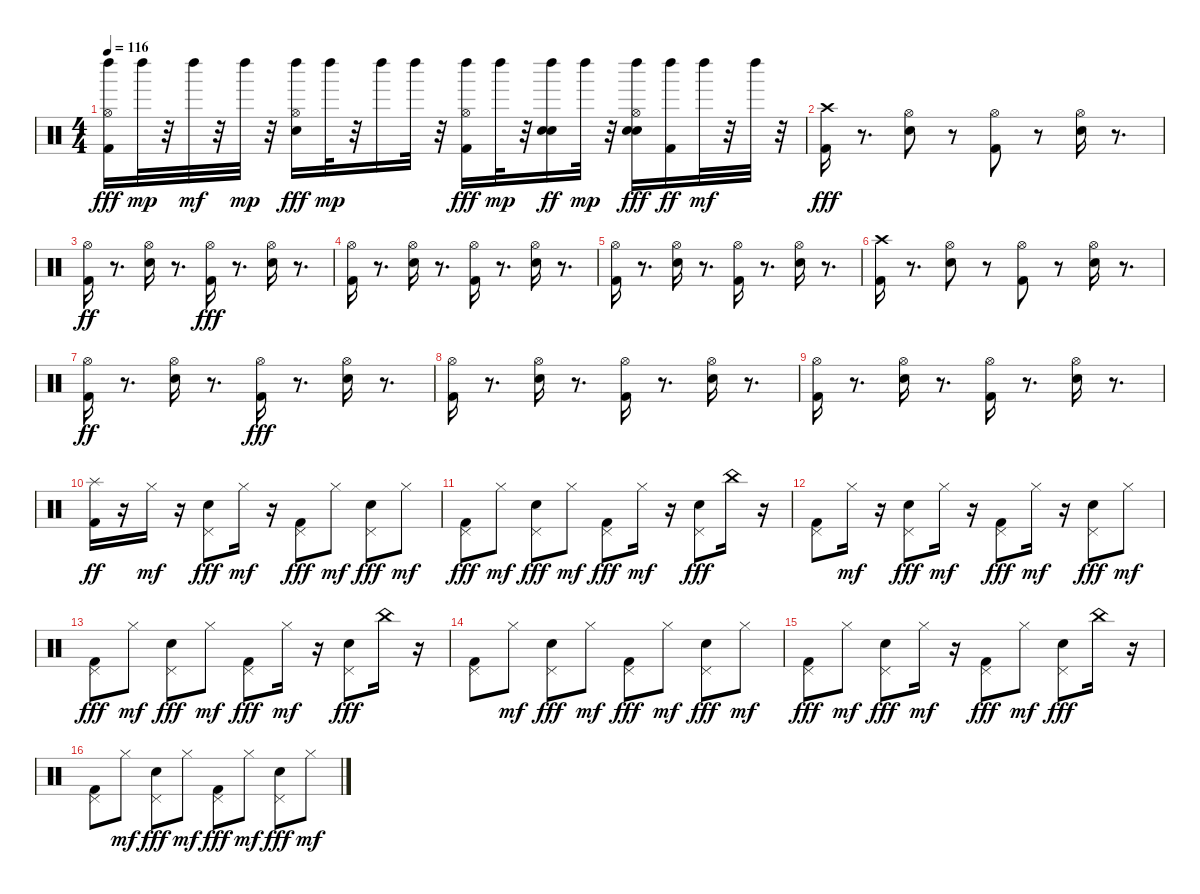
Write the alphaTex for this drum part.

\track "" {instrument percussion}
\staff {score}
\articulation defaults
\ts (4 4)
\tempo 116
\clef neutral
\ks c
("Left Maraca (hit)" "Kick (hit) 2" "Hi-Hat (open)").16{dy fff} "Left Maraca (hit)".32{dy mp} r.32 "Left Maraca (hit)".32{dy mf} r.32 "Left Maraca (hit)".32{dy mp} r.32 ("Left Maraca (hit)" "Snare (hit) 2" "Hi-Hat (open)").16{dy fff} "Left Maraca (hit)".32{dy mp} r.32 "Left Maraca (hit)".16 "Left Maraca (hit)".32 r.32 ("Left Maraca (hit)" "Kick (hit) 2" "Hi-Hat (open)").16{dy fff} "Left Maraca (hit)".32{dy mp} r.32 ("Snare (hit) 2" "Left Maraca (hit)" "Snare (hit) 2").16{dy ff} "Left Maraca (hit)".32{dy mp} r.32 ("Snare (hit) 2" "Left Maraca (hit)" "Snare (hit) 2" "Hi-Hat (open)").16{dy fff} ("Left Maraca (hit)" "Kick (hit) 2").16{dy ff} "Left Maraca (hit)".32{dy mf} r.32 "Left Maraca (hit)".32 r.32 |
("Kick (hit) 2" "Crash high (hit)").16{dy fff} r.8{d} ("Snare (hit) 2" "Hi-Hat (open)").8 r.8 ("Kick (hit) 2" "Hi-Hat (open)").8 r.8 ("Snare (hit) 2" "Hi-Hat (open)").16 r.8{d} |
("Kick (hit) 2" "Hi-Hat (open)").16{dy ff} r.8{d} ("Snare (hit) 2" "Hi-Hat (open)").16 r.8{d} ("Kick (hit) 2" "Hi-Hat (open)").16{dy fff} r.8{d} ("Snare (hit) 2" "Hi-Hat (open)").16 r.8{d} |
("Kick (hit) 2" "Hi-Hat (open)").16 r.8{d} ("Snare (hit) 2" "Hi-Hat (open)").16 r.8{d} ("Kick (hit) 2" "Hi-Hat (open)").16 r.8{d} ("Snare (hit) 2" "Hi-Hat (open)").16 r.8{d} |
("Kick (hit) 2" "Hi-Hat (open)").16 r.8{d} ("Snare (hit) 2" "Hi-Hat (open)").16 r.8{d} ("Kick (hit) 2" "Hi-Hat (open)").16 r.8{d} ("Snare (hit) 2" "Hi-Hat (open)").16 r.8{d} |
("Kick (hit) 2" "Crash high (hit)").16 r.8{d} ("Snare (hit) 2" "Hi-Hat (open)").8 r.8 ("Kick (hit) 2" "Hi-Hat (open)").8 r.8 ("Snare (hit) 2" "Hi-Hat (open)").16 r.8{d} |
("Kick (hit) 2" "Hi-Hat (open)").16{dy ff} r.8{d} ("Snare (hit) 2" "Hi-Hat (open)").16 r.8{d} ("Kick (hit) 2" "Hi-Hat (open)").16{dy fff} r.8{d} ("Snare (hit) 2" "Hi-Hat (open)").16 r.8{d} |
("Kick (hit) 2" "Hi-Hat (open)").16 r.8{d} ("Snare (hit) 2" "Hi-Hat (open)").16 r.8{d} ("Kick (hit) 2" "Hi-Hat (open)").16 r.8{d} ("Snare (hit) 2" "Hi-Hat (open)").16 r.8{d} |
("Kick (hit) 2" "Hi-Hat (open)").16 r.8{d} ("Snare (hit) 2" "Hi-Hat (open)").16 r.8{d} ("Kick (hit) 2" "Hi-Hat (open)").16 r.8{d} ("Snare (hit) 2" "Hi-Hat (open)").16 r.8{d} |
("Kick (hit) 2" "Splash (hit)").16{dy ff} r.16 "Hi-Hat (closed)".16{dy mf} r.16 ("Snare (hit) 2" "Pedal Hi-Hat (hit)").8{dy fff} "Hi-Hat (closed)".16{dy mf} r.16 ("Kick (hit) 2" "Pedal Hi-Hat (hit)").8{dy fff} "Hi-Hat (closed)".8{dy mf} ("Snare (hit) 2" "Pedal Hi-Hat (hit)").8{dy fff} "Hi-Hat (closed)".8{dy mf} |
("Kick (hit) 2" "Pedal Hi-Hat (hit)").8{dy fff} "Hi-Hat (closed)".8{dy mf} ("Snare (hit) 2" "Pedal Hi-Hat (hit)").8{dy fff} "Hi-Hat (closed)".8{dy mf} ("Kick (hit) 2" "Pedal Hi-Hat (hit)").8{dy fff} "Hi-Hat (closed)".16{dy mf} r.16 ("Snare (hit) 2" "Pedal Hi-Hat (hit)").8{dy fff} "China (choke)".16 r.16 |
("Kick (hit) 2" "Pedal Hi-Hat (hit)").8 "Hi-Hat (closed)".16{dy mf} r.16 ("Snare (hit) 2" "Pedal Hi-Hat (hit)").8{dy fff} "Hi-Hat (closed)".16{dy mf} r.16 ("Kick (hit) 2" "Pedal Hi-Hat (hit)").8{dy fff} "Hi-Hat (closed)".16{dy mf} r.16 ("Snare (hit) 2" "Pedal Hi-Hat (hit)").8{dy fff} "Hi-Hat (closed)".8{dy mf} |
("Kick (hit) 2" "Pedal Hi-Hat (hit)").8{dy fff} "Hi-Hat (closed)".8{dy mf} ("Snare (hit) 2" "Pedal Hi-Hat (hit)").8{dy fff} "Hi-Hat (closed)".8{dy mf} ("Kick (hit) 2" "Pedal Hi-Hat (hit)").8{dy fff} "Hi-Hat (closed)".16{dy mf} r.16 ("Snare (hit) 2" "Pedal Hi-Hat (hit)").8{dy fff} "China (choke)".16 r.16 |
("Kick (hit) 2" "Pedal Hi-Hat (hit)").8 "Hi-Hat (closed)".8{dy mf} ("Snare (hit) 2" "Pedal Hi-Hat (hit)").8{dy fff} "Hi-Hat (closed)".8{dy mf} ("Kick (hit) 2" "Pedal Hi-Hat (hit)").8{dy fff} "Hi-Hat (closed)".8{dy mf} ("Snare (hit) 2" "Pedal Hi-Hat (hit)").8{dy fff} "Hi-Hat (closed)".8{dy mf} |
("Kick (hit) 2" "Pedal Hi-Hat (hit)").8{dy fff} "Hi-Hat (closed)".8{dy mf} ("Snare (hit) 2" "Pedal Hi-Hat (hit)").8{dy fff} "Hi-Hat (closed)".16{dy mf} r.16 ("Kick (hit) 2" "Pedal Hi-Hat (hit)").8{dy fff} "Hi-Hat (closed)".8{dy mf} ("Snare (hit) 2" "Pedal Hi-Hat (hit)").8{dy fff} "China (choke)".16 r.16 |
("Kick (hit) 2" "Pedal Hi-Hat (hit)").8 "Hi-Hat (closed)".8{dy mf} ("Snare (hit) 2" "Pedal Hi-Hat (hit)").8{dy fff} "Hi-Hat (closed)".8{dy mf} ("Kick (hit) 2" "Pedal Hi-Hat (hit)").8{dy fff} "Hi-Hat (closed)".8{dy mf} ("Snare (hit) 2" "Pedal Hi-Hat (hit)").8{dy fff} "Hi-Hat (closed)".8{dy mf}
